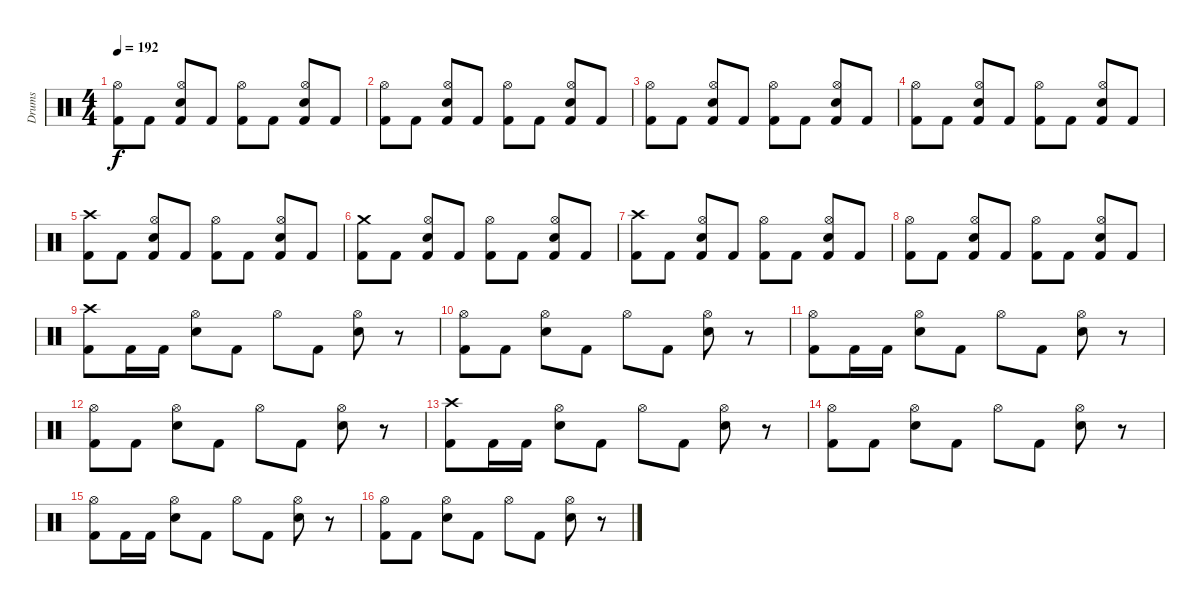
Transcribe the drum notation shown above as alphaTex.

\track ("Drums" "Drums") {instrument percussion}
\staff {score}
\articulation defaults
\ts (4 4)
\tempo 192
\clef neutral
\ks c
("Kick (hit) 2" "Hi-Hat (open)").8{dy f} "Kick (hit) 2".8 ("Kick (hit) 2" "Snare (hit) 2" "Hi-Hat (open)").8 "Kick (hit) 2".8 ("Kick (hit) 2" "Hi-Hat (open)").8 "Kick (hit) 2".8 ("Kick (hit) 2" "Snare (hit) 2" "Hi-Hat (open)").8 "Kick (hit) 2".8 |
("Kick (hit) 2" "Hi-Hat (open)").8 "Kick (hit) 2".8 ("Kick (hit) 2" "Snare (hit) 2" "Hi-Hat (open)").8 "Kick (hit) 2".8 ("Kick (hit) 2" "Hi-Hat (open)").8 "Kick (hit) 2".8 ("Kick (hit) 2" "Snare (hit) 2" "Hi-Hat (open)").8 "Kick (hit) 2".8 |
("Kick (hit) 2" "Hi-Hat (open)").8 "Kick (hit) 2".8 ("Kick (hit) 2" "Snare (hit) 2" "Hi-Hat (open)").8 "Kick (hit) 2".8 ("Kick (hit) 2" "Hi-Hat (open)").8 "Kick (hit) 2".8 ("Kick (hit) 2" "Snare (hit) 2" "Hi-Hat (open)").8 "Kick (hit) 2".8 |
("Kick (hit) 2" "Hi-Hat (open)").8 "Kick (hit) 2".8 ("Kick (hit) 2" "Snare (hit) 2" "Hi-Hat (open)").8 "Kick (hit) 2".8 ("Kick (hit) 2" "Hi-Hat (open)").8 "Kick (hit) 2".8 ("Kick (hit) 2" "Snare (hit) 2" "Hi-Hat (open)").8 "Kick (hit) 2".8 |
("Kick (hit) 2" "Crash high (hit)").8 "Kick (hit) 2".8 ("Kick (hit) 2" "Snare (hit) 2" "Hi-Hat (open)").8 "Kick (hit) 2".8 ("Kick (hit) 2" "Hi-Hat (open)").8 "Kick (hit) 2".8 ("Kick (hit) 2" "Snare (hit) 2" "Hi-Hat (open)").8 "Kick (hit) 2".8 |
("Kick (hit) 2" "Crash medium (hit)").8 "Kick (hit) 2".8 ("Kick (hit) 2" "Snare (hit) 2" "Hi-Hat (open)").8 "Kick (hit) 2".8 ("Kick (hit) 2" "Hi-Hat (open)").8 "Kick (hit) 2".8 ("Kick (hit) 2" "Snare (hit) 2" "Hi-Hat (open)").8 "Kick (hit) 2".8 |
("Kick (hit) 2" "Crash high (hit)").8 "Kick (hit) 2".8 ("Kick (hit) 2" "Snare (hit) 2" "Hi-Hat (open)").8 "Kick (hit) 2".8 ("Kick (hit) 2" "Hi-Hat (open)").8 "Kick (hit) 2".8 ("Kick (hit) 2" "Snare (hit) 2" "Hi-Hat (open)").8 "Kick (hit) 2".8 |
("Kick (hit) 2" "Hi-Hat (open)").8 "Kick (hit) 2".8 ("Kick (hit) 2" "Snare (hit) 2" "Hi-Hat (open)").8 "Kick (hit) 2".8 ("Kick (hit) 2" "Hi-Hat (open)").8 "Kick (hit) 2".8 ("Kick (hit) 2" "Snare (hit) 2" "Hi-Hat (open)").8 "Kick (hit) 2".8 |
("Kick (hit) 2" "Crash high (hit)").8 "Kick (hit) 2".16 "Kick (hit) 2".16 ("Snare (hit) 2" "Hi-Hat (open)").8 "Kick (hit) 2".8 "Hi-Hat (open)".8 "Kick (hit) 2".8 ("Snare (hit) 2" "Hi-Hat (open)").8 r.8 |
("Kick (hit) 2" "Hi-Hat (open)").8 "Kick (hit) 2".8 ("Snare (hit) 2" "Hi-Hat (open)").8 "Kick (hit) 2".8 "Hi-Hat (open)".8 "Kick (hit) 2".8 ("Snare (hit) 2" "Hi-Hat (open)").8 r.8 |
("Kick (hit) 2" "Hi-Hat (open)").8 "Kick (hit) 2".16 "Kick (hit) 2".16 ("Snare (hit) 2" "Hi-Hat (open)").8 "Kick (hit) 2".8 "Hi-Hat (open)".8 "Kick (hit) 2".8 ("Snare (hit) 2" "Hi-Hat (open)").8 r.8 |
("Kick (hit) 2" "Hi-Hat (open)").8 "Kick (hit) 2".8 ("Snare (hit) 2" "Hi-Hat (open)").8 "Kick (hit) 2".8 "Hi-Hat (open)".8 "Kick (hit) 2".8 ("Snare (hit) 2" "Hi-Hat (open)").8 r.8 |
("Kick (hit) 2" "Crash high (hit)").8 "Kick (hit) 2".16 "Kick (hit) 2".16 ("Snare (hit) 2" "Hi-Hat (open)").8 "Kick (hit) 2".8 "Hi-Hat (open)".8 "Kick (hit) 2".8 ("Snare (hit) 2" "Hi-Hat (open)").8 r.8 |
("Kick (hit) 2" "Hi-Hat (open)").8 "Kick (hit) 2".8 ("Snare (hit) 2" "Hi-Hat (open)").8 "Kick (hit) 2".8 "Hi-Hat (open)".8 "Kick (hit) 2".8 ("Snare (hit) 2" "Hi-Hat (open)").8 r.8 |
("Kick (hit) 2" "Hi-Hat (open)").8 "Kick (hit) 2".16 "Kick (hit) 2".16 ("Snare (hit) 2" "Hi-Hat (open)").8 "Kick (hit) 2".8 "Hi-Hat (open)".8 "Kick (hit) 2".8 ("Snare (hit) 2" "Hi-Hat (open)").8 r.8 |
("Kick (hit) 2" "Hi-Hat (open)").8 "Kick (hit) 2".8 ("Snare (hit) 2" "Hi-Hat (open)").8 "Kick (hit) 2".8 "Hi-Hat (open)".8 "Kick (hit) 2".8 ("Snare (hit) 2" "Hi-Hat (open)").8 r.8
